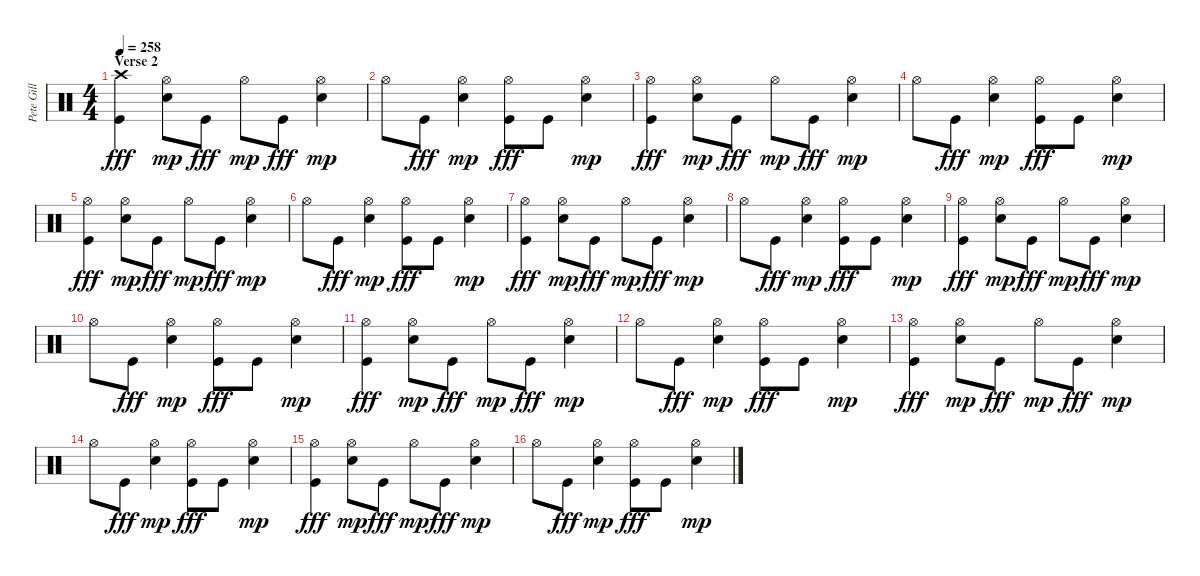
\track ("Pete Gill" "Pete Gill") {instrument percussion}
\staff {score}
\articulation defaults
\ts (4 4)
\section ("" "Verse 2")
\tempo 258
\clef neutral
\ks c
("Crash high (hit)" "Kick (hit)").4{dy fff} ("Hi-Hat (open)" "Electric Snare (hit)").8{dy mp} "Kick (hit)".8{dy fff} "Hi-Hat (open)".8{dy mp} "Kick (hit)".8{dy fff} ("Hi-Hat (open)" "Electric Snare (hit)").4{dy mp} |
"Hi-Hat (open)".8 "Kick (hit)".8{dy fff} ("Hi-Hat (open)" "Electric Snare (hit)").4{dy mp} ("Hi-Hat (open)" "Kick (hit)").8{dy fff} "Kick (hit)".8 ("Hi-Hat (open)" "Electric Snare (hit)").4{dy mp} |
("Hi-Hat (open)" "Kick (hit)").4{dy fff} ("Hi-Hat (open)" "Electric Snare (hit)").8{dy mp} "Kick (hit)".8{dy fff} "Hi-Hat (open)".8{dy mp} "Kick (hit)".8{dy fff} ("Hi-Hat (open)" "Electric Snare (hit)").4{dy mp} |
"Hi-Hat (open)".8 "Kick (hit)".8{dy fff} ("Hi-Hat (open)" "Electric Snare (hit)").4{dy mp} ("Hi-Hat (open)" "Kick (hit)").8{dy fff} "Kick (hit)".8 ("Hi-Hat (open)" "Electric Snare (hit)").4{dy mp} |
("Hi-Hat (open)" "Kick (hit)").4{dy fff} ("Hi-Hat (open)" "Electric Snare (hit)").8{dy mp} "Kick (hit)".8{dy fff} "Hi-Hat (open)".8{dy mp} "Kick (hit)".8{dy fff} ("Hi-Hat (open)" "Electric Snare (hit)").4{dy mp} |
"Hi-Hat (open)".8 "Kick (hit)".8{dy fff} ("Hi-Hat (open)" "Electric Snare (hit)").4{dy mp} ("Hi-Hat (open)" "Kick (hit)").8{dy fff} "Kick (hit)".8 ("Hi-Hat (open)" "Electric Snare (hit)").4{dy mp} |
("Hi-Hat (open)" "Kick (hit)").4{dy fff} ("Hi-Hat (open)" "Electric Snare (hit)").8{dy mp} "Kick (hit)".8{dy fff} "Hi-Hat (open)".8{dy mp} "Kick (hit)".8{dy fff} ("Hi-Hat (open)" "Electric Snare (hit)").4{dy mp} |
"Hi-Hat (open)".8 "Kick (hit)".8{dy fff} ("Hi-Hat (open)" "Electric Snare (hit)").4{dy mp} ("Hi-Hat (open)" "Kick (hit)").8{dy fff} "Kick (hit)".8 ("Hi-Hat (open)" "Electric Snare (hit)").4{dy mp} |
("Hi-Hat (open)" "Kick (hit)").4{dy fff} ("Hi-Hat (open)" "Electric Snare (hit)").8{dy mp} "Kick (hit)".8{dy fff} "Hi-Hat (open)".8{dy mp} "Kick (hit)".8{dy fff} ("Hi-Hat (open)" "Electric Snare (hit)").4{dy mp} |
"Hi-Hat (open)".8 "Kick (hit)".8{dy fff} ("Hi-Hat (open)" "Electric Snare (hit)").4{dy mp} ("Hi-Hat (open)" "Kick (hit)").8{dy fff} "Kick (hit)".8 ("Hi-Hat (open)" "Electric Snare (hit)").4{dy mp} |
("Hi-Hat (open)" "Kick (hit)").4{dy fff} ("Hi-Hat (open)" "Electric Snare (hit)").8{dy mp} "Kick (hit)".8{dy fff} "Hi-Hat (open)".8{dy mp} "Kick (hit)".8{dy fff} ("Hi-Hat (open)" "Electric Snare (hit)").4{dy mp} |
"Hi-Hat (open)".8 "Kick (hit)".8{dy fff} ("Hi-Hat (open)" "Electric Snare (hit)").4{dy mp} ("Hi-Hat (open)" "Kick (hit)").8{dy fff} "Kick (hit)".8 ("Hi-Hat (open)" "Electric Snare (hit)").4{dy mp} |
("Hi-Hat (open)" "Kick (hit)").4{dy fff} ("Hi-Hat (open)" "Electric Snare (hit)").8{dy mp} "Kick (hit)".8{dy fff} "Hi-Hat (open)".8{dy mp} "Kick (hit)".8{dy fff} ("Hi-Hat (open)" "Electric Snare (hit)").4{dy mp} |
"Hi-Hat (open)".8 "Kick (hit)".8{dy fff} ("Hi-Hat (open)" "Electric Snare (hit)").4{dy mp} ("Hi-Hat (open)" "Kick (hit)").8{dy fff} "Kick (hit)".8 ("Hi-Hat (open)" "Electric Snare (hit)").4{dy mp} |
("Hi-Hat (open)" "Kick (hit)").4{dy fff} ("Hi-Hat (open)" "Electric Snare (hit)").8{dy mp} "Kick (hit)".8{dy fff} "Hi-Hat (open)".8{dy mp} "Kick (hit)".8{dy fff} ("Hi-Hat (open)" "Electric Snare (hit)").4{dy mp} |
"Hi-Hat (open)".8 "Kick (hit)".8{dy fff} ("Hi-Hat (open)" "Electric Snare (hit)").4{dy mp} ("Hi-Hat (open)" "Kick (hit)").8{dy fff} "Kick (hit)".8 ("Hi-Hat (open)" "Electric Snare (hit)").4{dy mp}
